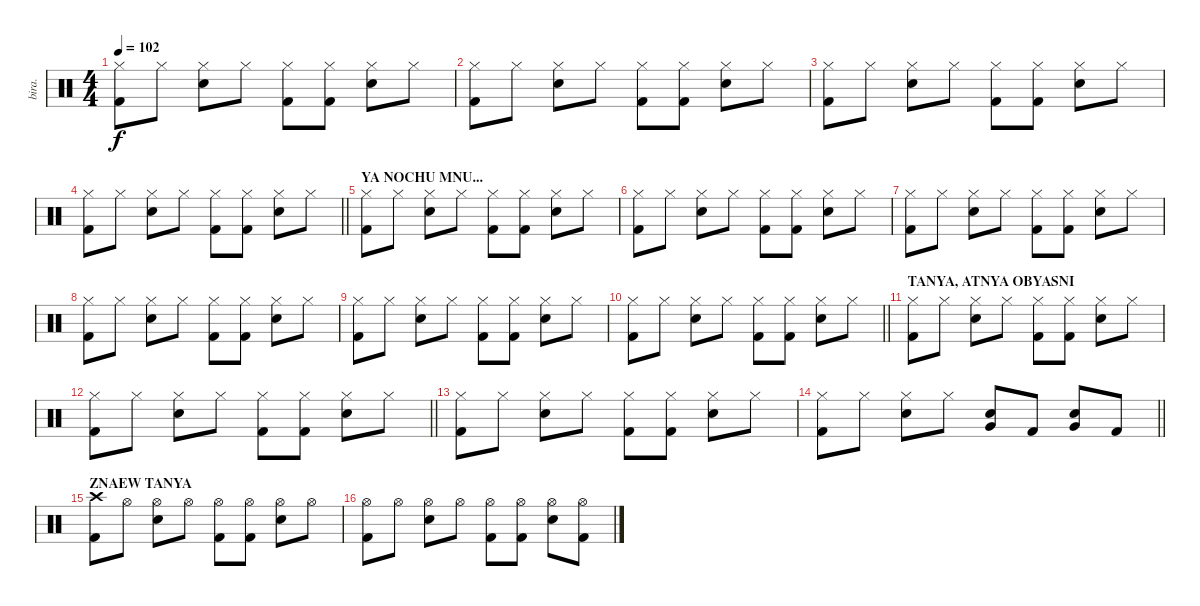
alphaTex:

\track ("bira." "bira.") {instrument percussion}
\staff {score}
\articulation defaults
\ts (4 4)
\tempo 102
\clef neutral
\ks c
("Hi-Hat (closed)" "Kick (hit) 2").8{dy f} "Hi-Hat (closed)".8 ("Hi-Hat (closed)" "Electric Snare (hit)").8 "Hi-Hat (closed)".8 ("Hi-Hat (closed)" "Kick (hit) 2").8 ("Hi-Hat (closed)" "Kick (hit) 2").8 ("Hi-Hat (closed)" "Electric Snare (hit)").8 "Hi-Hat (closed)".8 |
("Hi-Hat (closed)" "Kick (hit) 2").8 "Hi-Hat (closed)".8 ("Hi-Hat (closed)" "Electric Snare (hit)").8 "Hi-Hat (closed)".8 ("Hi-Hat (closed)" "Kick (hit) 2").8 ("Hi-Hat (closed)" "Kick (hit) 2").8 ("Hi-Hat (closed)" "Electric Snare (hit)").8 "Hi-Hat (closed)".8 |
("Hi-Hat (closed)" "Kick (hit) 2").8 "Hi-Hat (closed)".8 ("Hi-Hat (closed)" "Electric Snare (hit)").8 "Hi-Hat (closed)".8 ("Hi-Hat (closed)" "Kick (hit) 2").8 ("Hi-Hat (closed)" "Kick (hit) 2").8 ("Hi-Hat (closed)" "Electric Snare (hit)").8 "Hi-Hat (closed)".8 |
\barLineRight lightlight
("Hi-Hat (closed)" "Kick (hit) 2").8 "Hi-Hat (closed)".8 ("Hi-Hat (closed)" "Electric Snare (hit)").8 "Hi-Hat (closed)".8 ("Hi-Hat (closed)" "Kick (hit) 2").8 ("Hi-Hat (closed)" "Kick (hit) 2").8 ("Hi-Hat (closed)" "Electric Snare (hit)").8 "Hi-Hat (closed)".8 |
\section ("" "YA NOCHU MNU...")
("Hi-Hat (closed)" "Kick (hit) 2").8 "Hi-Hat (closed)".8 ("Hi-Hat (closed)" "Electric Snare (hit)").8 "Hi-Hat (closed)".8 ("Hi-Hat (closed)" "Kick (hit) 2").8 ("Hi-Hat (closed)" "Kick (hit) 2").8 ("Hi-Hat (closed)" "Electric Snare (hit)").8 "Hi-Hat (closed)".8 |
("Hi-Hat (closed)" "Kick (hit) 2").8 "Hi-Hat (closed)".8 ("Hi-Hat (closed)" "Electric Snare (hit)").8 "Hi-Hat (closed)".8 ("Hi-Hat (closed)" "Kick (hit) 2").8 ("Hi-Hat (closed)" "Kick (hit) 2").8 ("Hi-Hat (closed)" "Electric Snare (hit)").8 "Hi-Hat (closed)".8 |
("Hi-Hat (closed)" "Kick (hit) 2").8 "Hi-Hat (closed)".8 ("Hi-Hat (closed)" "Electric Snare (hit)").8 "Hi-Hat (closed)".8 ("Hi-Hat (closed)" "Kick (hit) 2").8 ("Hi-Hat (closed)" "Kick (hit) 2").8 ("Hi-Hat (closed)" "Electric Snare (hit)").8 "Hi-Hat (closed)".8 |
("Hi-Hat (closed)" "Kick (hit) 2").8 "Hi-Hat (closed)".8 ("Hi-Hat (closed)" "Electric Snare (hit)").8 "Hi-Hat (closed)".8 ("Hi-Hat (closed)" "Kick (hit) 2").8 ("Hi-Hat (closed)" "Kick (hit) 2").8 ("Hi-Hat (closed)" "Electric Snare (hit)").8 "Hi-Hat (closed)".8 |
("Hi-Hat (closed)" "Kick (hit) 2").8 "Hi-Hat (closed)".8 ("Hi-Hat (closed)" "Electric Snare (hit)").8 "Hi-Hat (closed)".8 ("Hi-Hat (closed)" "Kick (hit) 2").8 ("Hi-Hat (closed)" "Kick (hit) 2").8 ("Hi-Hat (closed)" "Electric Snare (hit)").8 "Hi-Hat (closed)".8 |
\barLineRight lightlight
("Hi-Hat (closed)" "Kick (hit) 2").8 "Hi-Hat (closed)".8 ("Hi-Hat (closed)" "Electric Snare (hit)").8 "Hi-Hat (closed)".8 ("Hi-Hat (closed)" "Kick (hit) 2").8 ("Hi-Hat (closed)" "Kick (hit) 2").8 ("Hi-Hat (closed)" "Electric Snare (hit)").8 "Hi-Hat (closed)".8 |
\section ("" "TANYA, ATNYA OBYASNI")
("Hi-Hat (closed)" "Kick (hit) 2").8 "Hi-Hat (closed)".8 ("Hi-Hat (closed)" "Electric Snare (hit)").8 "Hi-Hat (closed)".8 ("Hi-Hat (closed)" "Kick (hit) 2").8 ("Hi-Hat (closed)" "Kick (hit) 2").8 ("Hi-Hat (closed)" "Electric Snare (hit)").8 "Hi-Hat (closed)".8 |
\barLineRight lightlight
("Hi-Hat (closed)" "Kick (hit) 2").8 "Hi-Hat (closed)".8 ("Hi-Hat (closed)" "Electric Snare (hit)").8 "Hi-Hat (closed)".8 ("Hi-Hat (closed)" "Kick (hit) 2").8 ("Hi-Hat (closed)" "Kick (hit) 2").8 ("Hi-Hat (closed)" "Electric Snare (hit)").8 "Hi-Hat (closed)".8 |
("Hi-Hat (closed)" "Kick (hit) 2").8 "Hi-Hat (closed)".8 ("Hi-Hat (closed)" "Electric Snare (hit)").8 "Hi-Hat (closed)".8 ("Hi-Hat (closed)" "Kick (hit) 2").8 ("Hi-Hat (closed)" "Kick (hit) 2").8 ("Hi-Hat (closed)" "Electric Snare (hit)").8 "Hi-Hat (closed)".8 |
\barLineRight lightlight
("Hi-Hat (closed)" "Kick (hit) 2").8 "Hi-Hat (closed)".8 ("Hi-Hat (closed)" "Electric Snare (hit)").8 "Hi-Hat (closed)".8 ("Very Low Tom (hit)" "Electric Snare (hit)").8 "Kick (hit) 2".8 ("Very Low Tom (hit)" "Electric Snare (hit)").8 "Kick (hit) 2".8 |
\section ("" "ZNAEW TANYA")
("Crash high (hit)" "Kick (hit) 2").8 "Hi-Hat (open)".8 ("Hi-Hat (open)" "Electric Snare (hit)").8 "Hi-Hat (open)".8 ("Hi-Hat (open)" "Kick (hit) 2").8 ("Hi-Hat (open)" "Kick (hit) 2").8 ("Hi-Hat (open)" "Electric Snare (hit)").8 "Hi-Hat (open)".8 |
("Hi-Hat (open)" "Kick (hit) 2").8 "Hi-Hat (open)".8 ("Hi-Hat (open)" "Electric Snare (hit)").8 "Hi-Hat (open)".8 ("Hi-Hat (open)" "Kick (hit) 2").8 ("Hi-Hat (open)" "Kick (hit) 2").8 ("Hi-Hat (open)" "Electric Snare (hit)").8 ("Hi-Hat (open)" "Kick (hit) 2").8
